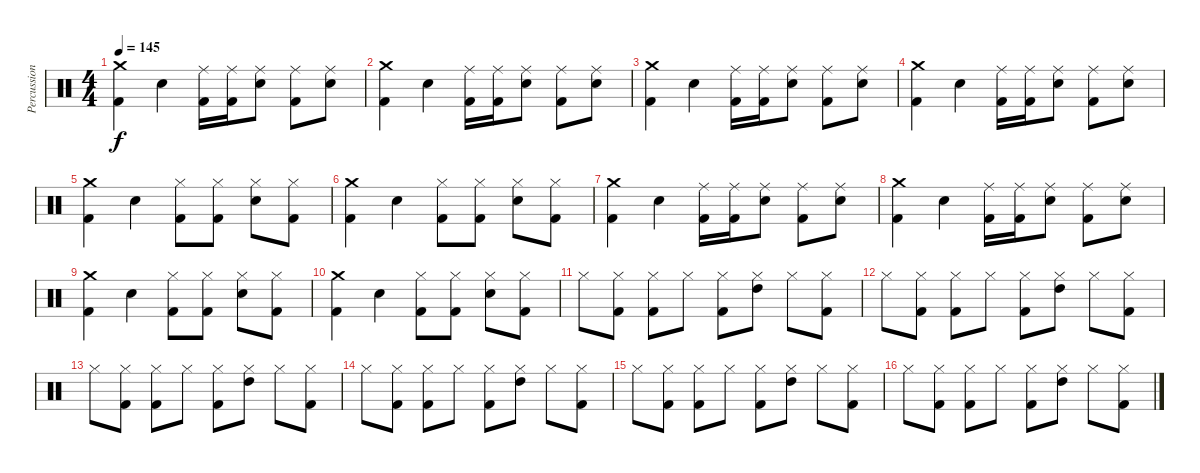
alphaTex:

\track ("Percussion" "Percussion") {instrument percussion}
\staff {score}
\articulation defaults
\ts (4 4)
\tempo 145
\clef neutral
\ks c
("Kick (hit) 2" "Crash medium (hit)").4{dy f} "Snare (hit) 2".4 ("Kick (hit) 2" "Ride (middle)").16 ("Kick (hit) 2" "Ride (middle)").16 ("Snare (hit) 2" "Ride (middle)").8 ("Kick (hit) 2" "Ride (middle)").8 ("Snare (hit) 2" "Ride (middle)").8 |
("Kick (hit) 2" "Crash medium (hit)").4 "Snare (hit) 2".4 ("Kick (hit) 2" "Ride (middle)").16 ("Kick (hit) 2" "Ride (middle)").16 ("Snare (hit) 2" "Ride (middle)").8 ("Kick (hit) 2" "Ride (middle)").8 ("Snare (hit) 2" "Ride (middle)").8 |
("Kick (hit) 2" "Crash medium (hit)").4 "Snare (hit) 2".4 ("Kick (hit) 2" "Ride (middle)").16 ("Kick (hit) 2" "Ride (middle)").16 ("Snare (hit) 2" "Ride (middle)").8 ("Kick (hit) 2" "Ride (middle)").8 ("Snare (hit) 2" "Ride (middle)").8 |
("Kick (hit) 2" "Crash medium (hit)").4 "Snare (hit) 2".4 ("Kick (hit) 2" "Ride (middle)").16 ("Kick (hit) 2" "Ride (middle)").16 ("Snare (hit) 2" "Ride (middle)").8 ("Kick (hit) 2" "Ride (middle)").8 ("Snare (hit) 2" "Ride (middle)").8 |
("Kick (hit) 2" "Crash medium (hit)").4 "Snare (hit) 2".4 ("Kick (hit) 2" "Hi-Hat (closed)").8 ("Kick (hit) 2" "Hi-Hat (closed)").8 ("Snare (hit) 2" "Hi-Hat (closed)").8 ("Kick (hit) 2" "Hi-Hat (closed)").8 |
("Kick (hit) 2" "Crash medium (hit)").4 "Snare (hit) 2".4 ("Kick (hit) 2" "Hi-Hat (closed)").8 ("Kick (hit) 2" "Hi-Hat (closed)").8 ("Snare (hit) 2" "Hi-Hat (closed)").8 ("Kick (hit) 2" "Hi-Hat (closed)").8 |
("Kick (hit) 2" "Crash medium (hit)").4 "Snare (hit) 2".4 ("Kick (hit) 2" "Ride (middle)").16 ("Kick (hit) 2" "Ride (middle)").16 ("Snare (hit) 2" "Ride (middle)").8 ("Kick (hit) 2" "Ride (middle)").8 ("Snare (hit) 2" "Ride (middle)").8 |
("Kick (hit) 2" "Crash medium (hit)").4 "Snare (hit) 2".4 ("Kick (hit) 2" "Ride (middle)").16 ("Kick (hit) 2" "Ride (middle)").16 ("Snare (hit) 2" "Ride (middle)").8 ("Kick (hit) 2" "Ride (middle)").8 ("Snare (hit) 2" "Ride (middle)").8 |
("Kick (hit) 2" "Crash medium (hit)").4 "Snare (hit) 2".4 ("Kick (hit) 2" "Hi-Hat (closed)").8 ("Kick (hit) 2" "Hi-Hat (closed)").8 ("Snare (hit) 2" "Hi-Hat (closed)").8 ("Kick (hit) 2" "Hi-Hat (closed)").8 |
("Kick (hit) 2" "Crash medium (hit)").4 "Snare (hit) 2".4 ("Kick (hit) 2" "Hi-Hat (closed)").8 ("Kick (hit) 2" "Hi-Hat (closed)").8 ("Snare (hit) 2" "Hi-Hat (closed)").8 ("Kick (hit) 2" "Hi-Hat (closed)").8 |
"Hi-Hat (closed)".8 ("Kick (hit) 2" "Hi-Hat (closed)").8 ("Kick (hit) 2" "Hi-Hat (closed)").8 "Hi-Hat (closed)".8 ("Kick (hit) 2" "Hi-Hat (closed)").8 ("High Tom (hit)" "Hi-Hat (closed)").8 "Hi-Hat (closed)".8 ("Kick (hit) 2" "Hi-Hat (closed)").8 |
"Hi-Hat (closed)".8 ("Kick (hit) 2" "Hi-Hat (closed)").8 ("Kick (hit) 2" "Hi-Hat (closed)").8 "Hi-Hat (closed)".8 ("Kick (hit) 2" "Hi-Hat (closed)").8 ("High Tom (hit)" "Hi-Hat (closed)").8 "Hi-Hat (closed)".8 ("Kick (hit) 2" "Hi-Hat (closed)").8 |
"Hi-Hat (closed)".8 ("Kick (hit) 2" "Hi-Hat (closed)").8 ("Kick (hit) 2" "Hi-Hat (closed)").8 "Hi-Hat (closed)".8 ("Kick (hit) 2" "Hi-Hat (closed)").8 ("High Tom (hit)" "Hi-Hat (closed)").8 "Hi-Hat (closed)".8 ("Kick (hit) 2" "Hi-Hat (closed)").8 |
"Hi-Hat (closed)".8 ("Kick (hit) 2" "Hi-Hat (closed)").8 ("Kick (hit) 2" "Hi-Hat (closed)").8 "Hi-Hat (closed)".8 ("Kick (hit) 2" "Hi-Hat (closed)").8 ("High Tom (hit)" "Hi-Hat (closed)").8 "Hi-Hat (closed)".8 ("Kick (hit) 2" "Hi-Hat (closed)").8 |
"Hi-Hat (closed)".8 ("Kick (hit) 2" "Hi-Hat (closed)").8 ("Kick (hit) 2" "Hi-Hat (closed)").8 "Hi-Hat (closed)".8 ("Kick (hit) 2" "Hi-Hat (closed)").8 ("High Tom (hit)" "Hi-Hat (closed)").8 "Hi-Hat (closed)".8 ("Kick (hit) 2" "Hi-Hat (closed)").8 |
"Hi-Hat (closed)".8 ("Kick (hit) 2" "Hi-Hat (closed)").8 ("Kick (hit) 2" "Hi-Hat (closed)").8 "Hi-Hat (closed)".8 ("Kick (hit) 2" "Hi-Hat (closed)").8 ("High Tom (hit)" "Hi-Hat (closed)").8 "Hi-Hat (closed)".8 ("Kick (hit) 2" "Hi-Hat (closed)").8
